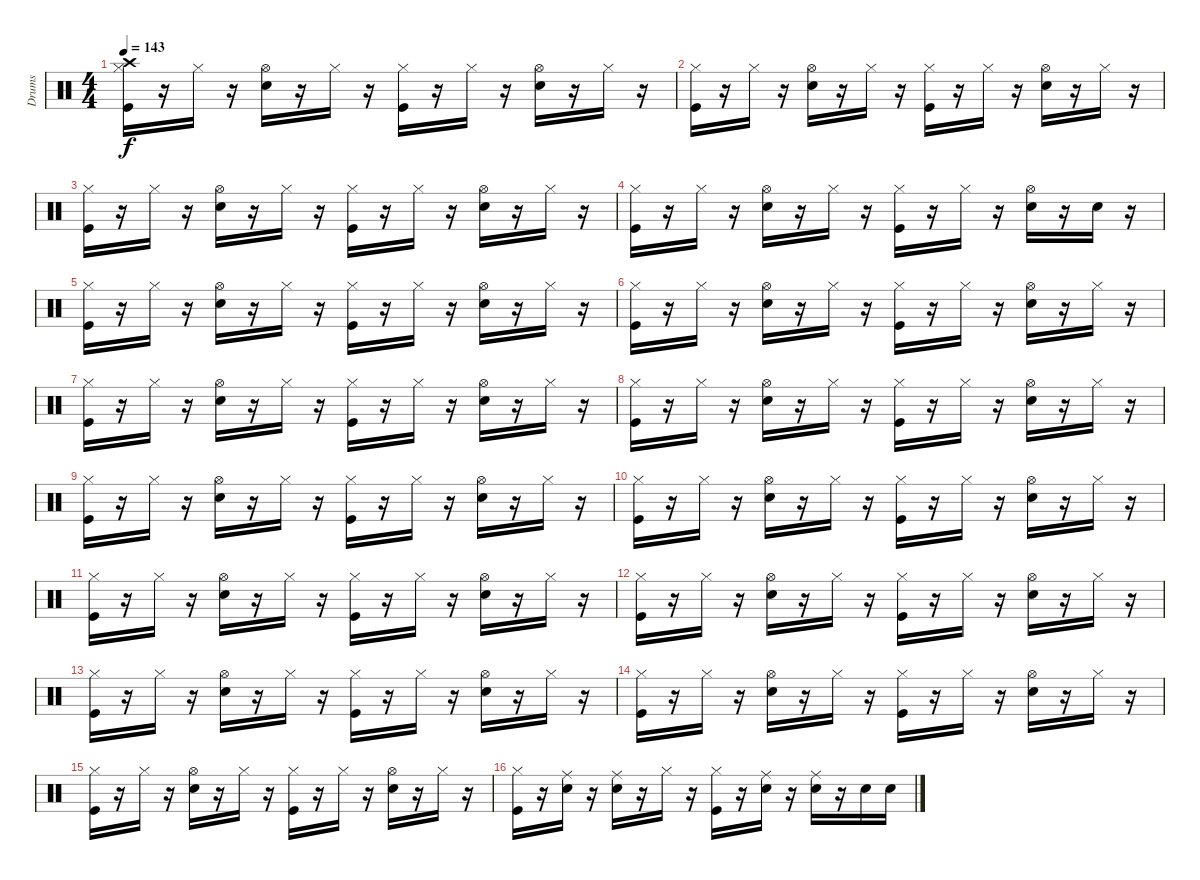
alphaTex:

\track ("Drums" "Drums") {instrument percussion}
\staff {score}
\articulation defaults
\ts (4 4)
\tempo 143
\clef neutral
\ks c
("Hi-Hat (closed)" "Kick (hit)" "Crash high (hit)").16{dy f} r.16 "Hi-Hat (closed)".16 r.16 ("Hi-Hat (open)" "Snare (hit) 2").16 r.16 "Hi-Hat (closed)".16 r.16 ("Hi-Hat (closed)" "Kick (hit)").16 r.16 "Hi-Hat (closed)".16 r.16 ("Hi-Hat (open)" "Snare (hit) 2").16 r.16 "Hi-Hat (closed)".16 r.16 |
("Hi-Hat (closed)" "Kick (hit)").16 r.16 "Hi-Hat (closed)".16 r.16 ("Hi-Hat (open)" "Snare (hit) 2").16 r.16 "Hi-Hat (closed)".16 r.16 ("Hi-Hat (closed)" "Kick (hit)").16 r.16 "Hi-Hat (closed)".16 r.16 ("Hi-Hat (open)" "Snare (hit) 2").16 r.16 "Hi-Hat (closed)".16 r.16 |
("Hi-Hat (closed)" "Kick (hit)").16 r.16 "Hi-Hat (closed)".16 r.16 ("Hi-Hat (open)" "Snare (hit) 2").16 r.16 "Hi-Hat (closed)".16 r.16 ("Hi-Hat (closed)" "Kick (hit)").16 r.16 "Hi-Hat (closed)".16 r.16 ("Hi-Hat (open)" "Snare (hit) 2").16 r.16 "Hi-Hat (closed)".16 r.16 |
("Hi-Hat (closed)" "Kick (hit)").16 r.16 "Hi-Hat (closed)".16 r.16 ("Hi-Hat (open)" "Snare (hit) 2").16 r.16 "Hi-Hat (closed)".16 r.16 ("Hi-Hat (closed)" "Kick (hit)").16 r.16 "Hi-Hat (closed)".16 r.16 ("Hi-Hat (open)" "Snare (hit) 2").16 r.16 "Snare (hit) 2".16 r.16 |
("Hi-Hat (closed)" "Kick (hit)").16 r.16 "Hi-Hat (closed)".16 r.16 ("Hi-Hat (open)" "Snare (hit) 2").16 r.16 "Hi-Hat (closed)".16 r.16 ("Hi-Hat (closed)" "Kick (hit)").16 r.16 "Hi-Hat (closed)".16 r.16 ("Hi-Hat (open)" "Snare (hit) 2").16 r.16 "Hi-Hat (closed)".16 r.16 |
("Hi-Hat (closed)" "Kick (hit)").16 r.16 "Hi-Hat (closed)".16 r.16 ("Hi-Hat (open)" "Snare (hit) 2").16 r.16 "Hi-Hat (closed)".16 r.16 ("Hi-Hat (closed)" "Kick (hit)").16 r.16 "Hi-Hat (closed)".16 r.16 ("Hi-Hat (open)" "Snare (hit) 2").16 r.16 "Hi-Hat (closed)".16 r.16 |
("Hi-Hat (closed)" "Kick (hit)").16 r.16 "Hi-Hat (closed)".16 r.16 ("Hi-Hat (open)" "Snare (hit) 2").16 r.16 "Hi-Hat (closed)".16 r.16 ("Hi-Hat (closed)" "Kick (hit)").16 r.16 "Hi-Hat (closed)".16 r.16 ("Hi-Hat (open)" "Snare (hit) 2").16 r.16 "Hi-Hat (closed)".16 r.16 |
("Hi-Hat (closed)" "Kick (hit)").16 r.16 "Hi-Hat (closed)".16 r.16 ("Hi-Hat (open)" "Snare (hit) 2").16 r.16 "Hi-Hat (closed)".16 r.16 ("Hi-Hat (closed)" "Kick (hit)").16 r.16 "Hi-Hat (closed)".16 r.16 ("Hi-Hat (open)" "Snare (hit) 2").16 r.16 "Hi-Hat (closed)".16 r.16 |
("Hi-Hat (closed)" "Kick (hit)").16 r.16 "Hi-Hat (closed)".16 r.16 ("Hi-Hat (open)" "Snare (hit) 2").16 r.16 "Hi-Hat (closed)".16 r.16 ("Hi-Hat (closed)" "Kick (hit)").16 r.16 "Hi-Hat (closed)".16 r.16 ("Hi-Hat (open)" "Snare (hit) 2").16 r.16 "Hi-Hat (closed)".16 r.16 |
("Hi-Hat (closed)" "Kick (hit)").16 r.16 "Hi-Hat (closed)".16 r.16 ("Hi-Hat (open)" "Snare (hit) 2").16 r.16 "Hi-Hat (closed)".16 r.16 ("Hi-Hat (closed)" "Kick (hit)").16 r.16 "Hi-Hat (closed)".16 r.16 ("Hi-Hat (open)" "Snare (hit) 2").16 r.16 "Hi-Hat (closed)".16 r.16 |
("Hi-Hat (closed)" "Kick (hit)").16 r.16 "Hi-Hat (closed)".16 r.16 ("Hi-Hat (open)" "Snare (hit) 2").16 r.16 "Hi-Hat (closed)".16 r.16 ("Hi-Hat (closed)" "Kick (hit)").16 r.16 "Hi-Hat (closed)".16 r.16 ("Hi-Hat (open)" "Snare (hit) 2").16 r.16 "Hi-Hat (closed)".16 r.16 |
("Hi-Hat (closed)" "Kick (hit)").16 r.16 "Hi-Hat (closed)".16 r.16 ("Hi-Hat (open)" "Snare (hit) 2").16 r.16 "Hi-Hat (closed)".16 r.16 ("Hi-Hat (closed)" "Kick (hit)").16 r.16 "Hi-Hat (closed)".16 r.16 ("Hi-Hat (open)" "Snare (hit) 2").16 r.16 "Hi-Hat (closed)".16 r.16 |
("Hi-Hat (closed)" "Kick (hit)").16 r.16 "Hi-Hat (closed)".16 r.16 ("Hi-Hat (open)" "Snare (hit) 2").16 r.16 "Hi-Hat (closed)".16 r.16 ("Hi-Hat (closed)" "Kick (hit)").16 r.16 "Hi-Hat (closed)".16 r.16 ("Hi-Hat (open)" "Snare (hit) 2").16 r.16 "Hi-Hat (closed)".16 r.16 |
("Hi-Hat (closed)" "Kick (hit)").16 r.16 "Hi-Hat (closed)".16 r.16 ("Hi-Hat (open)" "Snare (hit) 2").16 r.16 "Hi-Hat (closed)".16 r.16 ("Hi-Hat (closed)" "Kick (hit)").16 r.16 "Hi-Hat (closed)".16 r.16 ("Hi-Hat (open)" "Snare (hit) 2").16 r.16 "Hi-Hat (closed)".16 r.16 |
("Hi-Hat (closed)" "Kick (hit)").16 r.16 "Hi-Hat (closed)".16 r.16 ("Hi-Hat (open)" "Snare (hit) 2").16 r.16 "Hi-Hat (closed)".16 r.16 ("Hi-Hat (closed)" "Kick (hit)").16 r.16 "Hi-Hat (closed)".16 r.16 ("Hi-Hat (open)" "Snare (hit) 2").16 r.16 "Hi-Hat (closed)".16 r.16 |
("Hi-Hat (closed)" "Kick (hit)").16 r.16 ("Snare (hit) 2" "Ride (middle)").16 r.16 ("Snare (hit) 2" "Ride (middle)").16 r.16 "Hi-Hat (closed)".16 r.16 ("Hi-Hat (closed)" "Kick (hit)").16 r.16 ("Snare (hit) 2" "Ride (middle)").16 r.16 ("Snare (hit) 2" "Ride (middle)").16 r.16 "Snare (hit) 2".16 "Snare (hit) 2".16
